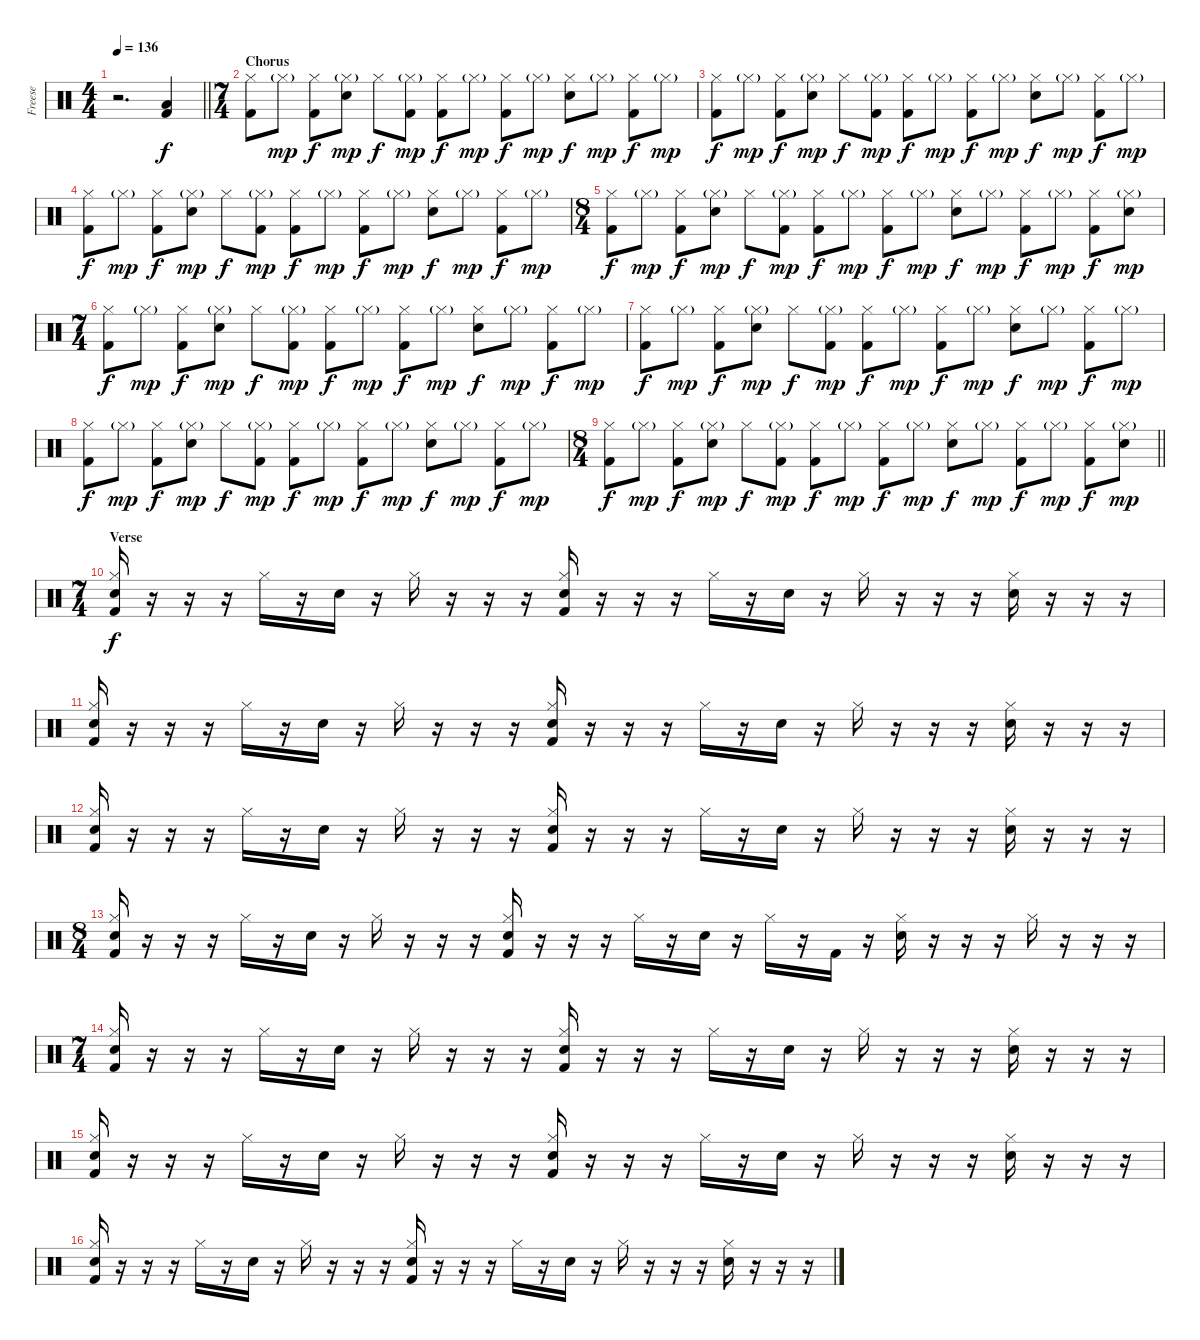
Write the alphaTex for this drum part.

\track ("Freese" "Freese") {instrument percussion}
\staff {score}
\articulation defaults
\ts (4 4)
\tempo 136
\clef neutral
\barLineRight lightlight
\ks c
r.2{d dy f} ("Low Floor Tom (hit)" "Kick (hit) 2").4 |
\ts (7 4)
\section ("" "Chorus")
("Hi-Hat (closed)" "Kick (hit) 2").8 "Hi-Hat (closed)"{g}.8{dy mp} ("Hi-Hat (closed)" "Kick (hit) 2").8{dy f} ("Hi-Hat (closed)"{g} "Snare (hit) 2").8{dy mp} "Hi-Hat (closed)".8{dy f} ("Hi-Hat (closed)"{g} "Kick (hit) 2").8{dy mp} ("Hi-Hat (closed)" "Kick (hit) 2").8{dy f} "Hi-Hat (closed)"{g}.8{dy mp} ("Hi-Hat (closed)" "Kick (hit) 2").8{dy f} "Hi-Hat (closed)"{g}.8{dy mp} ("Hi-Hat (closed)" "Snare (hit) 2").8{dy f} "Hi-Hat (closed)"{g}.8{dy mp} ("Hi-Hat (closed)" "Kick (hit) 2").8{dy f} "Hi-Hat (closed)"{g}.8{dy mp} |
("Hi-Hat (closed)" "Kick (hit) 2").8{dy f} "Hi-Hat (closed)"{g}.8{dy mp} ("Hi-Hat (closed)" "Kick (hit) 2").8{dy f} ("Hi-Hat (closed)"{g} "Snare (hit) 2").8{dy mp} "Hi-Hat (closed)".8{dy f} ("Hi-Hat (closed)"{g} "Kick (hit) 2").8{dy mp} ("Hi-Hat (closed)" "Kick (hit) 2").8{dy f} "Hi-Hat (closed)"{g}.8{dy mp} ("Hi-Hat (closed)" "Kick (hit) 2").8{dy f} "Hi-Hat (closed)"{g}.8{dy mp} ("Hi-Hat (closed)" "Snare (hit) 2").8{dy f} "Hi-Hat (closed)"{g}.8{dy mp} ("Hi-Hat (closed)" "Kick (hit) 2").8{dy f} "Hi-Hat (closed)"{g}.8{dy mp} |
("Hi-Hat (closed)" "Kick (hit) 2").8{dy f} "Hi-Hat (closed)"{g}.8{dy mp} ("Hi-Hat (closed)" "Kick (hit) 2").8{dy f} ("Hi-Hat (closed)"{g} "Snare (hit) 2").8{dy mp} "Hi-Hat (closed)".8{dy f} ("Hi-Hat (closed)"{g} "Kick (hit) 2").8{dy mp} ("Hi-Hat (closed)" "Kick (hit) 2").8{dy f} "Hi-Hat (closed)"{g}.8{dy mp} ("Hi-Hat (closed)" "Kick (hit) 2").8{dy f} "Hi-Hat (closed)"{g}.8{dy mp} ("Hi-Hat (closed)" "Snare (hit) 2").8{dy f} "Hi-Hat (closed)"{g}.8{dy mp} ("Hi-Hat (closed)" "Kick (hit) 2").8{dy f} "Hi-Hat (closed)"{g}.8{dy mp} |
\ts (8 4)
("Hi-Hat (closed)" "Kick (hit) 2").8{dy f} "Hi-Hat (closed)"{g}.8{dy mp} ("Hi-Hat (closed)" "Kick (hit) 2").8{dy f} ("Hi-Hat (closed)"{g} "Snare (hit) 2").8{dy mp} "Hi-Hat (closed)".8{dy f} ("Hi-Hat (closed)"{g} "Kick (hit) 2").8{dy mp} ("Hi-Hat (closed)" "Kick (hit) 2").8{dy f} "Hi-Hat (closed)"{g}.8{dy mp} ("Hi-Hat (closed)" "Kick (hit) 2").8{dy f} "Hi-Hat (closed)"{g}.8{dy mp} ("Hi-Hat (closed)" "Snare (hit) 2").8{dy f} "Hi-Hat (closed)"{g}.8{dy mp} ("Hi-Hat (closed)" "Kick (hit) 2").8{dy f} "Hi-Hat (closed)"{g}.8{dy mp} ("Hi-Hat (closed)" "Kick (hit) 2").8{dy f} ("Hi-Hat (closed)"{g} "Snare (hit) 2").8{dy mp} |
\ts (7 4)
("Hi-Hat (closed)" "Kick (hit) 2").8{dy f} "Hi-Hat (closed)"{g}.8{dy mp} ("Hi-Hat (closed)" "Kick (hit) 2").8{dy f} ("Hi-Hat (closed)"{g} "Snare (hit) 2").8{dy mp} "Hi-Hat (closed)".8{dy f} ("Hi-Hat (closed)"{g} "Kick (hit) 2").8{dy mp} ("Hi-Hat (closed)" "Kick (hit) 2").8{dy f} "Hi-Hat (closed)"{g}.8{dy mp} ("Hi-Hat (closed)" "Kick (hit) 2").8{dy f} "Hi-Hat (closed)"{g}.8{dy mp} ("Hi-Hat (closed)" "Snare (hit) 2").8{dy f} "Hi-Hat (closed)"{g}.8{dy mp} ("Hi-Hat (closed)" "Kick (hit) 2").8{dy f} "Hi-Hat (closed)"{g}.8{dy mp} |
("Hi-Hat (closed)" "Kick (hit) 2").8{dy f} "Hi-Hat (closed)"{g}.8{dy mp} ("Hi-Hat (closed)" "Kick (hit) 2").8{dy f} ("Hi-Hat (closed)"{g} "Snare (hit) 2").8{dy mp} "Hi-Hat (closed)".8{dy f} ("Hi-Hat (closed)"{g} "Kick (hit) 2").8{dy mp} ("Hi-Hat (closed)" "Kick (hit) 2").8{dy f} "Hi-Hat (closed)"{g}.8{dy mp} ("Hi-Hat (closed)" "Kick (hit) 2").8{dy f} "Hi-Hat (closed)"{g}.8{dy mp} ("Hi-Hat (closed)" "Snare (hit) 2").8{dy f} "Hi-Hat (closed)"{g}.8{dy mp} ("Hi-Hat (closed)" "Kick (hit) 2").8{dy f} "Hi-Hat (closed)"{g}.8{dy mp} |
("Hi-Hat (closed)" "Kick (hit) 2").8{dy f} "Hi-Hat (closed)"{g}.8{dy mp} ("Hi-Hat (closed)" "Kick (hit) 2").8{dy f} ("Hi-Hat (closed)"{g} "Snare (hit) 2").8{dy mp} "Hi-Hat (closed)".8{dy f} ("Hi-Hat (closed)"{g} "Kick (hit) 2").8{dy mp} ("Hi-Hat (closed)" "Kick (hit) 2").8{dy f} "Hi-Hat (closed)"{g}.8{dy mp} ("Hi-Hat (closed)" "Kick (hit) 2").8{dy f} "Hi-Hat (closed)"{g}.8{dy mp} ("Hi-Hat (closed)" "Snare (hit) 2").8{dy f} "Hi-Hat (closed)"{g}.8{dy mp} ("Hi-Hat (closed)" "Kick (hit) 2").8{dy f} "Hi-Hat (closed)"{g}.8{dy mp} |
\ts (8 4)
\barLineRight lightlight
("Hi-Hat (closed)" "Kick (hit) 2").8{dy f} "Hi-Hat (closed)"{g}.8{dy mp} ("Hi-Hat (closed)" "Kick (hit) 2").8{dy f} ("Hi-Hat (closed)"{g} "Snare (hit) 2").8{dy mp} "Hi-Hat (closed)".8{dy f} ("Hi-Hat (closed)"{g} "Kick (hit) 2").8{dy mp} ("Hi-Hat (closed)" "Kick (hit) 2").8{dy f} "Hi-Hat (closed)"{g}.8{dy mp} ("Hi-Hat (closed)" "Kick (hit) 2").8{dy f} "Hi-Hat (closed)"{g}.8{dy mp} ("Hi-Hat (closed)" "Snare (hit) 2").8{dy f} "Hi-Hat (closed)"{g}.8{dy mp} ("Hi-Hat (closed)" "Kick (hit) 2").8{dy f} "Hi-Hat (closed)"{g}.8{dy mp} ("Hi-Hat (closed)" "Kick (hit) 2").8{dy f} ("Hi-Hat (closed)"{g} "Snare (hit) 2").8{dy mp} |
\ts (7 4)
\section ("" "Verse")
("Hi-Hat (closed)" "Snare (hit) 2" "Kick (hit) 2").16{dy f} r.16 r.16 r.16 "Hi-Hat (closed)".16 r.16 "Snare (hit) 2".16 r.16 "Hi-Hat (closed)".16 r.16 r.16 r.16 ("Hi-Hat (closed)" "Snare (hit) 2" "Kick (hit) 2").16 r.16 r.16 r.16 "Hi-Hat (closed)".16 r.16 "Snare (hit) 2".16 r.16 "Hi-Hat (closed)".16 r.16 r.16 r.16 ("Hi-Hat (closed)" "Snare (hit) 2").16 r.16 r.16 r.16 |
("Hi-Hat (closed)" "Snare (hit) 2" "Kick (hit) 2").16 r.16 r.16 r.16 "Hi-Hat (closed)".16 r.16 "Snare (hit) 2".16 r.16 "Hi-Hat (closed)".16 r.16 r.16 r.16 ("Hi-Hat (closed)" "Snare (hit) 2" "Kick (hit) 2").16 r.16 r.16 r.16 "Hi-Hat (closed)".16 r.16 "Snare (hit) 2".16 r.16 "Hi-Hat (closed)".16 r.16 r.16 r.16 ("Hi-Hat (closed)" "Snare (hit) 2").16 r.16 r.16 r.16 |
("Hi-Hat (closed)" "Snare (hit) 2" "Kick (hit) 2").16 r.16 r.16 r.16 "Hi-Hat (closed)".16 r.16 "Snare (hit) 2".16 r.16 "Hi-Hat (closed)".16 r.16 r.16 r.16 ("Hi-Hat (closed)" "Snare (hit) 2" "Kick (hit) 2").16 r.16 r.16 r.16 "Hi-Hat (closed)".16 r.16 "Snare (hit) 2".16 r.16 "Hi-Hat (closed)".16 r.16 r.16 r.16 ("Hi-Hat (closed)" "Snare (hit) 2").16 r.16 r.16 r.16 |
\ts (8 4)
("Hi-Hat (closed)" "Snare (hit) 2" "Kick (hit) 2").16 r.16 r.16 r.16 "Hi-Hat (closed)".16 r.16 "Snare (hit) 2".16 r.16 "Hi-Hat (closed)".16 r.16 r.16 r.16 ("Hi-Hat (closed)" "Snare (hit) 2" "Kick (hit) 2").16 r.16 r.16 r.16 "Hi-Hat (closed)".16 r.16 "Snare (hit) 2".16 r.16 "Hi-Hat (closed)".16 r.16 "Kick (hit) 2".16 r.16 ("Hi-Hat (closed)" "Snare (hit) 2").16 r.16 r.16 r.16 "Hi-Hat (closed)".16 r.16 r.16 r.16 |
\ts (7 4)
("Hi-Hat (closed)" "Snare (hit) 2" "Kick (hit) 2").16 r.16 r.16 r.16 "Hi-Hat (closed)".16 r.16 "Snare (hit) 2".16 r.16 "Hi-Hat (closed)".16 r.16 r.16 r.16 ("Hi-Hat (closed)" "Snare (hit) 2" "Kick (hit) 2").16 r.16 r.16 r.16 "Hi-Hat (closed)".16 r.16 "Snare (hit) 2".16 r.16 "Hi-Hat (closed)".16 r.16 r.16 r.16 ("Hi-Hat (closed)" "Snare (hit) 2").16 r.16 r.16 r.16 |
("Hi-Hat (closed)" "Snare (hit) 2" "Kick (hit) 2").16 r.16 r.16 r.16 "Hi-Hat (closed)".16 r.16 "Snare (hit) 2".16 r.16 "Hi-Hat (closed)".16 r.16 r.16 r.16 ("Hi-Hat (closed)" "Snare (hit) 2" "Kick (hit) 2").16 r.16 r.16 r.16 "Hi-Hat (closed)".16 r.16 "Snare (hit) 2".16 r.16 "Hi-Hat (closed)".16 r.16 r.16 r.16 ("Hi-Hat (closed)" "Snare (hit) 2").16 r.16 r.16 r.16 |
("Hi-Hat (closed)" "Snare (hit) 2" "Kick (hit) 2").16 r.16 r.16 r.16 "Hi-Hat (closed)".16 r.16 "Snare (hit) 2".16 r.16 "Hi-Hat (closed)".16 r.16 r.16 r.16 ("Hi-Hat (closed)" "Snare (hit) 2" "Kick (hit) 2").16 r.16 r.16 r.16 "Hi-Hat (closed)".16 r.16 "Snare (hit) 2".16 r.16 "Hi-Hat (closed)".16 r.16 r.16 r.16 ("Hi-Hat (closed)" "Snare (hit) 2").16 r.16 r.16 r.16
